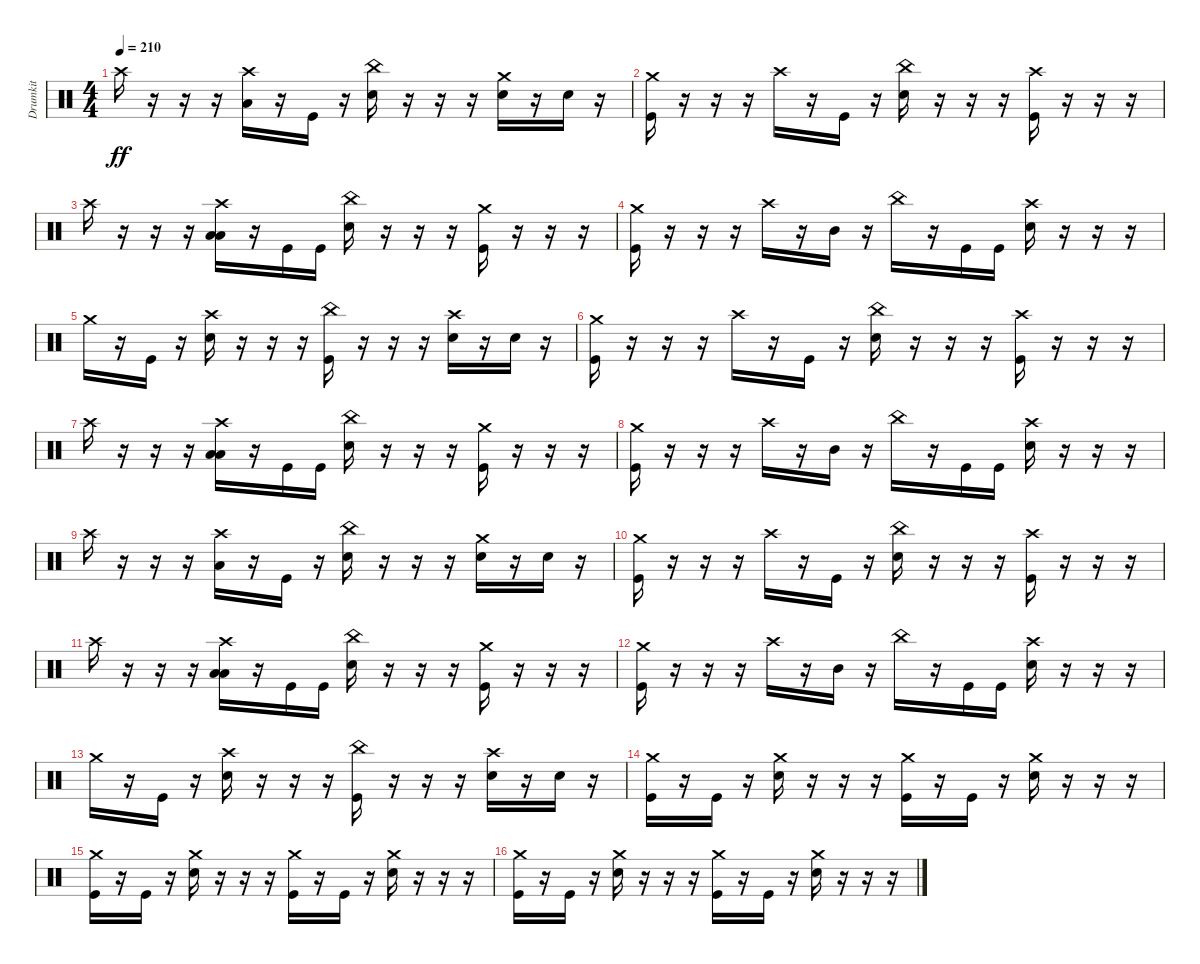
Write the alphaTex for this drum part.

\track ("Drumkit" "Drumkit") {instrument percussion}
\staff {score}
\articulation defaults
\ts (4 4)
\tempo 210
\clef neutral
\ks c "Crash high (hit)".16{dy ff}
r.16 r.16 r.16 ("Crash high (hit)" "Low Tom (hit)").16 r.16 "Kick (hit)".16 r.16 ("Snare (hit) 2" "China (hit)").16 r.16 r.16 r.16 ("Crash medium (hit)" "Snare (hit) 2").16 r.16 "Snare (hit) 2".16 r.16 |
("Kick (hit)" "Crash medium (hit)").16 r.16 r.16 r.16 "Crash high (hit)".16 r.16 "Kick (hit)".16 r.16 ("Snare (hit) 2" "China (hit)").16 r.16 r.16 r.16 ("Kick (hit)" "Crash high (hit)").16 r.16 r.16 r.16 |
"Crash high (hit)".16 r.16 r.16 r.16 ("Crash high (hit)" "Low Floor Tom (hit)" "Low Tom (hit)").16 r.16 "Kick (hit)".16 "Kick (hit)".16 ("Snare (hit) 2" "China (hit)").16 r.16 r.16 r.16 ("Kick (hit)" "Crash medium (hit)").16 r.16 r.16 r.16 |
("Kick (hit)" "Crash medium (hit)").16 r.16 r.16 r.16 "Crash high (hit)".16 r.16 "Mid Tom (hit)".16 r.16 "China (hit)".16 r.16 "Kick (hit)".16 "Kick (hit)".16 ("Crash high (hit)" "Snare (hit) 2").16 r.16 r.16 r.16 |
"Crash medium (hit)".16 r.16 "Kick (hit)".16 r.16 ("Crash high (hit)" "Snare (hit) 2").16 r.16 r.16 r.16 ("China (hit)" "Kick (hit)").16 r.16 r.16 r.16 ("Crash high (hit)" "Snare (hit) 2").16 r.16 "Snare (hit) 2".16 r.16 |
("Kick (hit)" "Crash medium (hit)").16 r.16 r.16 r.16 "Crash high (hit)".16 r.16 "Kick (hit)".16 r.16 ("Snare (hit) 2" "China (hit)").16 r.16 r.16 r.16 ("Kick (hit)" "Crash high (hit)").16 r.16 r.16 r.16 |
"Crash high (hit)".16 r.16 r.16 r.16 ("Crash high (hit)" "Low Floor Tom (hit)" "Low Tom (hit)").16 r.16 "Kick (hit)".16 "Kick (hit)".16 ("Snare (hit) 2" "China (hit)").16 r.16 r.16 r.16 ("Kick (hit)" "Crash medium (hit)").16 r.16 r.16 r.16 |
("Kick (hit)" "Crash medium (hit)").16 r.16 r.16 r.16 "Crash high (hit)".16 r.16 "Mid Tom (hit)".16 r.16 "China (hit)".16 r.16 "Kick (hit)".16 "Kick (hit)".16 ("Crash high (hit)" "Snare (hit) 2").16 r.16 r.16 r.16 |
"Crash high (hit)".16 r.16 r.16 r.16 ("Crash high (hit)" "Low Tom (hit)").16 r.16 "Kick (hit)".16 r.16 ("Snare (hit) 2" "China (hit)").16 r.16 r.16 r.16 ("Crash medium (hit)" "Snare (hit) 2").16 r.16 "Snare (hit) 2".16 r.16 |
("Kick (hit)" "Crash medium (hit)").16 r.16 r.16 r.16 "Crash high (hit)".16 r.16 "Kick (hit)".16 r.16 ("Snare (hit) 2" "China (hit)").16 r.16 r.16 r.16 ("Kick (hit)" "Crash high (hit)").16 r.16 r.16 r.16 |
"Crash high (hit)".16 r.16 r.16 r.16 ("Crash high (hit)" "Low Floor Tom (hit)" "Low Tom (hit)").16 r.16 "Kick (hit)".16 "Kick (hit)".16 ("Snare (hit) 2" "China (hit)").16 r.16 r.16 r.16 ("Kick (hit)" "Crash medium (hit)").16 r.16 r.16 r.16 |
("Kick (hit)" "Crash medium (hit)").16 r.16 r.16 r.16 "Crash high (hit)".16 r.16 "Mid Tom (hit)".16 r.16 "China (hit)".16 r.16 "Kick (hit)".16 "Kick (hit)".16 ("Crash high (hit)" "Snare (hit) 2").16 r.16 r.16 r.16 |
"Crash medium (hit)".16 r.16 "Kick (hit)".16 r.16 ("Crash high (hit)" "Snare (hit) 2").16 r.16 r.16 r.16 ("China (hit)" "Kick (hit)").16 r.16 r.16 r.16 ("Crash high (hit)" "Snare (hit) 2").16 r.16 "Snare (hit) 2".16 r.16 |
("Kick (hit)" "Crash medium (hit)").16 r.16 "Kick (hit)".16 r.16 ("Snare (hit) 2" "Crash medium (hit)").16 r.16 r.16 r.16 ("Kick (hit)" "Crash medium (hit)").16 r.16 "Kick (hit)".16 r.16 ("Snare (hit) 2" "Crash medium (hit)").16 r.16 r.16 r.16 |
("Kick (hit)" "Crash medium (hit)").16 r.16 "Kick (hit)".16 r.16 ("Snare (hit) 2" "Crash medium (hit)").16 r.16 r.16 r.16 ("Kick (hit)" "Crash medium (hit)").16 r.16 "Kick (hit)".16 r.16 ("Snare (hit) 2" "Crash medium (hit)").16 r.16 r.16 r.16 |
("Kick (hit)" "Crash medium (hit)").16 r.16 "Kick (hit)".16 r.16 ("Snare (hit) 2" "Crash medium (hit)").16 r.16 r.16 r.16 ("Kick (hit)" "Crash medium (hit)").16 r.16 "Kick (hit)".16 r.16 ("Snare (hit) 2" "Crash medium (hit)").16 r.16 r.16 r.16
